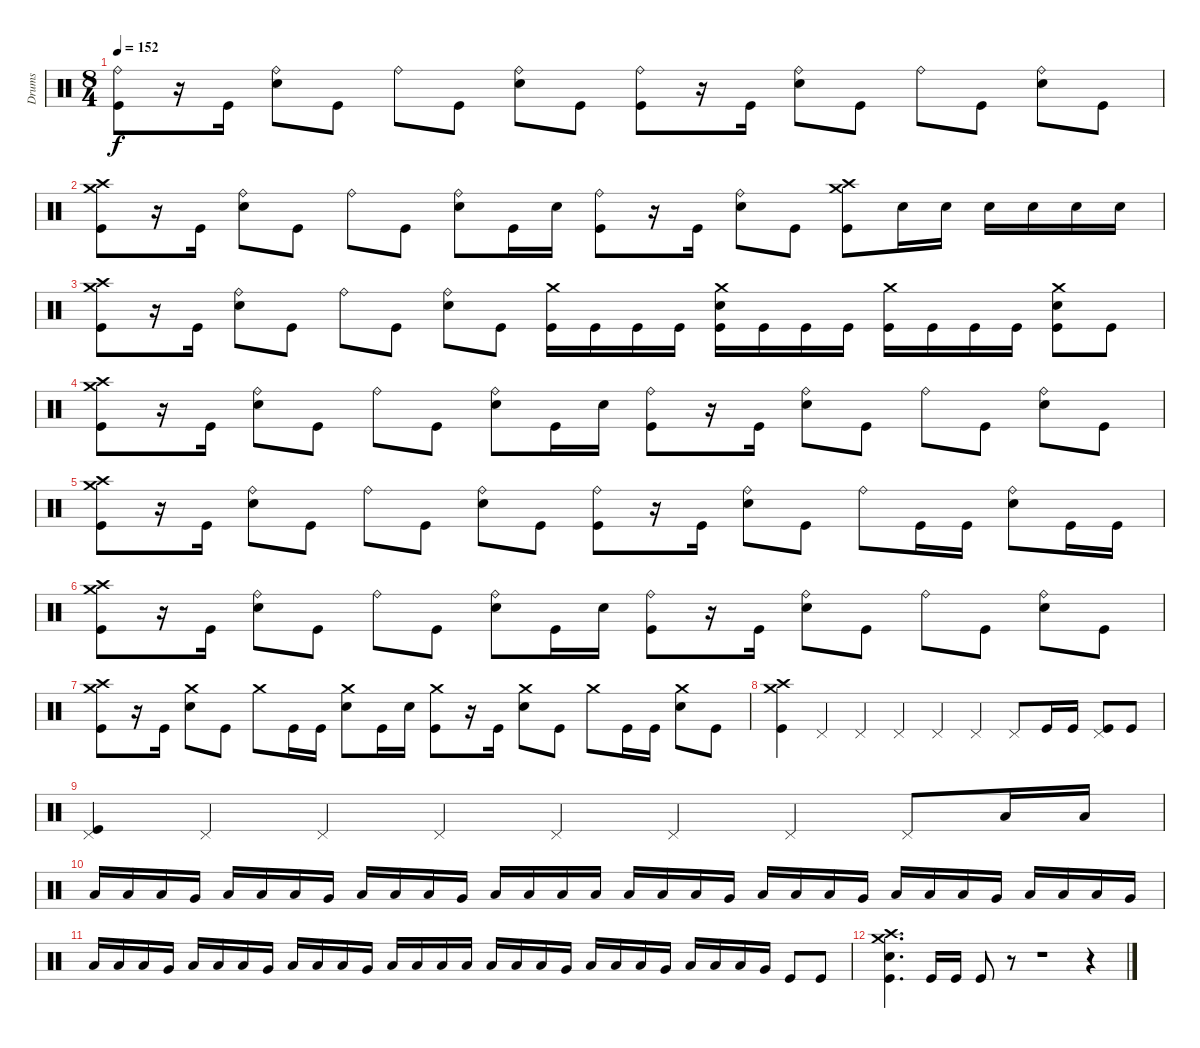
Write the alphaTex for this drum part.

\track ("Drums" "Drums") {instrument percussion}
\staff {score}
\articulation defaults
\ts (8 4)
\tempo 152
\clef neutral
\ks c
("Kick (hit)" "Ride (bell)").8{dy f} r.16 "Kick (hit)".16 ("Electric Snare (hit)" "Ride (bell)").8 "Kick (hit)".8 "Ride (bell)".8 "Kick (hit)".8 ("Electric Snare (hit)" "Ride (bell)").8 "Kick (hit)".8 ("Kick (hit)" "Ride (bell)").8 r.16 "Kick (hit)".16 ("Electric Snare (hit)" "Ride (bell)").8 "Kick (hit)".8 "Ride (bell)".8 "Kick (hit)".8 ("Electric Snare (hit)" "Ride (bell)").8 "Kick (hit)".8 |
("Kick (hit)" "Crash high (hit)" "Crash medium (hit)").8 r.16 "Kick (hit)".16 ("Electric Snare (hit)" "Ride (bell)").8 "Kick (hit)".8 "Ride (bell)".8 "Kick (hit)".8 ("Electric Snare (hit)" "Ride (bell)").8 "Kick (hit)".16 "Electric Snare (hit)".16 ("Kick (hit)" "Ride (bell)").8 r.16 "Kick (hit)".16 ("Electric Snare (hit)" "Ride (bell)").8 "Kick (hit)".8 ("Kick (hit)" "Crash medium (hit)" "Crash high (hit)").8 "Electric Snare (hit)".16 "Electric Snare (hit)".16 "Electric Snare (hit)".16 "Electric Snare (hit)".16 "Electric Snare (hit)".16 "Electric Snare (hit)".16 |
("Kick (hit)" "Crash high (hit)" "Crash medium (hit)").8 r.16 "Kick (hit)".16 ("Electric Snare (hit)" "Ride (bell)").8 "Kick (hit)".8 "Ride (bell)".8 "Kick (hit)".8 ("Electric Snare (hit)" "Ride (bell)").8 "Kick (hit)".8 ("Kick (hit)" "Crash medium (hit)").16 "Kick (hit)".16 "Kick (hit)".16 "Kick (hit)".16 ("Kick (hit)" "Crash medium (hit)" "Electric Snare (hit)").16 "Kick (hit)".16 "Kick (hit)".16 "Kick (hit)".16 ("Kick (hit)" "Crash medium (hit)").16 "Kick (hit)".16 "Kick (hit)".16 "Kick (hit)".16 ("Kick (hit)" "Crash medium (hit)" "Electric Snare (hit)").8 "Kick (hit)".8 |
("Kick (hit)" "Crash high (hit)" "Crash medium (hit)").8 r.16 "Kick (hit)".16 ("Electric Snare (hit)" "Ride (bell)").8 "Kick (hit)".8 "Ride (bell)".8 "Kick (hit)".8 ("Electric Snare (hit)" "Ride (bell)").8 "Kick (hit)".16 "Electric Snare (hit)".16 ("Kick (hit)" "Ride (bell)").8 r.16 "Kick (hit)".16 ("Electric Snare (hit)" "Ride (bell)").8 "Kick (hit)".8 "Ride (bell)".8 "Kick (hit)".8 ("Electric Snare (hit)" "Ride (bell)").8 "Kick (hit)".8 |
("Kick (hit)" "Crash high (hit)" "Crash medium (hit)").8 r.16 "Kick (hit)".16 ("Electric Snare (hit)" "Ride (bell)").8 "Kick (hit)".8 "Ride (bell)".8 "Kick (hit)".8 ("Electric Snare (hit)" "Ride (bell)").8 "Kick (hit)".8 ("Kick (hit)" "Ride (bell)").8 r.16 "Kick (hit)".16 ("Electric Snare (hit)" "Ride (bell)").8 "Kick (hit)".8 "Ride (bell)".8 "Kick (hit)".16 "Kick (hit)".16 ("Electric Snare (hit)" "Ride (bell)").8 "Kick (hit)".16 "Kick (hit)".16 |
("Kick (hit)" "Crash high (hit)" "Crash medium (hit)").8 r.16 "Kick (hit)".16 ("Electric Snare (hit)" "Ride (bell)").8 "Kick (hit)".8 "Ride (bell)".8 "Kick (hit)".8 ("Electric Snare (hit)" "Ride (bell)").8 "Kick (hit)".16 "Electric Snare (hit)".16 ("Kick (hit)" "Ride (bell)").8 r.16 "Kick (hit)".16 ("Electric Snare (hit)" "Ride (bell)").8 "Kick (hit)".8 "Ride (bell)".8 "Kick (hit)".8 ("Electric Snare (hit)" "Ride (bell)").8 "Kick (hit)".8 |
("Kick (hit)" "Crash high (hit)" "Crash medium (hit)").8 r.16 "Kick (hit)".16 ("Electric Snare (hit)" "Crash medium (hit)").8 "Kick (hit)".8 "Crash medium (hit)".8 "Kick (hit)".16 "Kick (hit)".16 ("Electric Snare (hit)" "Crash medium (hit)").8 "Kick (hit)".16 "Electric Snare (hit)".16 ("Kick (hit)" "Crash medium (hit)").8 r.16 "Kick (hit)".16 ("Electric Snare (hit)" "Crash medium (hit)").8 "Kick (hit)".8 "Crash medium (hit)".8 "Kick (hit)".16 "Kick (hit)".16 ("Electric Snare (hit)" "Crash medium (hit)").8 "Kick (hit)".8 |
("Kick (hit)" "Crash medium (hit)" "Crash high (hit)").4 "Pedal Hi-Hat (hit)".4 "Pedal Hi-Hat (hit)".4 "Pedal Hi-Hat (hit)".4 "Pedal Hi-Hat (hit)".4 "Pedal Hi-Hat (hit)".4 "Pedal Hi-Hat (hit)".8 "Kick (hit)".16 "Kick (hit)".16 ("Kick (hit)" "Pedal Hi-Hat (hit)").8 "Kick (hit)".8 |
("Kick (hit)" "Pedal Hi-Hat (hit)").4 "Pedal Hi-Hat (hit)".4 "Pedal Hi-Hat (hit)".4 "Pedal Hi-Hat (hit)".4 "Pedal Hi-Hat (hit)".4 "Pedal Hi-Hat (hit)".4 "Pedal Hi-Hat (hit)".4 "Pedal Hi-Hat (hit)".8 "Low Tom (hit)".16 "Low Tom (hit)".16 |
"Low Tom (hit)".16 "Low Tom (hit)".16 "Low Tom (hit)".16 "Very Low Tom (hit)".16 "Low Floor Tom (hit)".16 "Low Floor Tom (hit)".16 "Low Floor Tom (hit)".16 "Very Low Tom (hit)".16 "Low Tom (hit)".16 "Low Tom (hit)".16 "Low Tom (hit)".16 "Very Low Tom (hit)".16 "Low Floor Tom (hit)".16 "Low Floor Tom (hit)".16 "Low Floor Tom (hit)".16 "Low Floor Tom (hit)".16 "Low Tom (hit)".16 "Low Tom (hit)".16 "Low Tom (hit)".16 "Very Low Tom (hit)".16 "Low Floor Tom (hit)".16 "Low Floor Tom (hit)".16 "Low Floor Tom (hit)".16 "Very Low Tom (hit)".16 "Low Tom (hit)".16 "Low Tom (hit)".16 "Low Tom (hit)".16 "Very Low Tom (hit)".16 "Low Floor Tom (hit)".16 "Low Floor Tom (hit)".16 "Low Floor Tom (hit)".16 "Very Low Tom (hit)".16 |
"Low Tom (hit)".16 "Low Tom (hit)".16 "Low Tom (hit)".16 "Very Low Tom (hit)".16 "Low Floor Tom (hit)".16 "Low Floor Tom (hit)".16 "Low Floor Tom (hit)".16 "Very Low Tom (hit)".16 "Low Tom (hit)".16 "Low Tom (hit)".16 "Low Tom (hit)".16 "Very Low Tom (hit)".16 "Low Floor Tom (hit)".16 "Low Floor Tom (hit)".16 "Low Floor Tom (hit)".16 "Low Floor Tom (hit)".16 "Low Tom (hit)".16 "Low Tom (hit)".16 "Low Tom (hit)".16 "Very Low Tom (hit)".16 "Low Floor Tom (hit)".16 "Low Floor Tom (hit)".16 "Low Floor Tom (hit)".16 "Very Low Tom (hit)".16 "Low Tom (hit)".16 "Low Tom (hit)".16 "Low Tom (hit)".16 "Very Low Tom (hit)".16 "Kick (hit)".8 "Kick (hit)".8 |
("Electric Snare (hit)" "Crash high (hit)" "Crash medium (hit)" "Kick (hit)").4{d} "Kick (hit)".16 "Kick (hit)".16 "Kick (hit)".8 r.8 r.1 r.4
